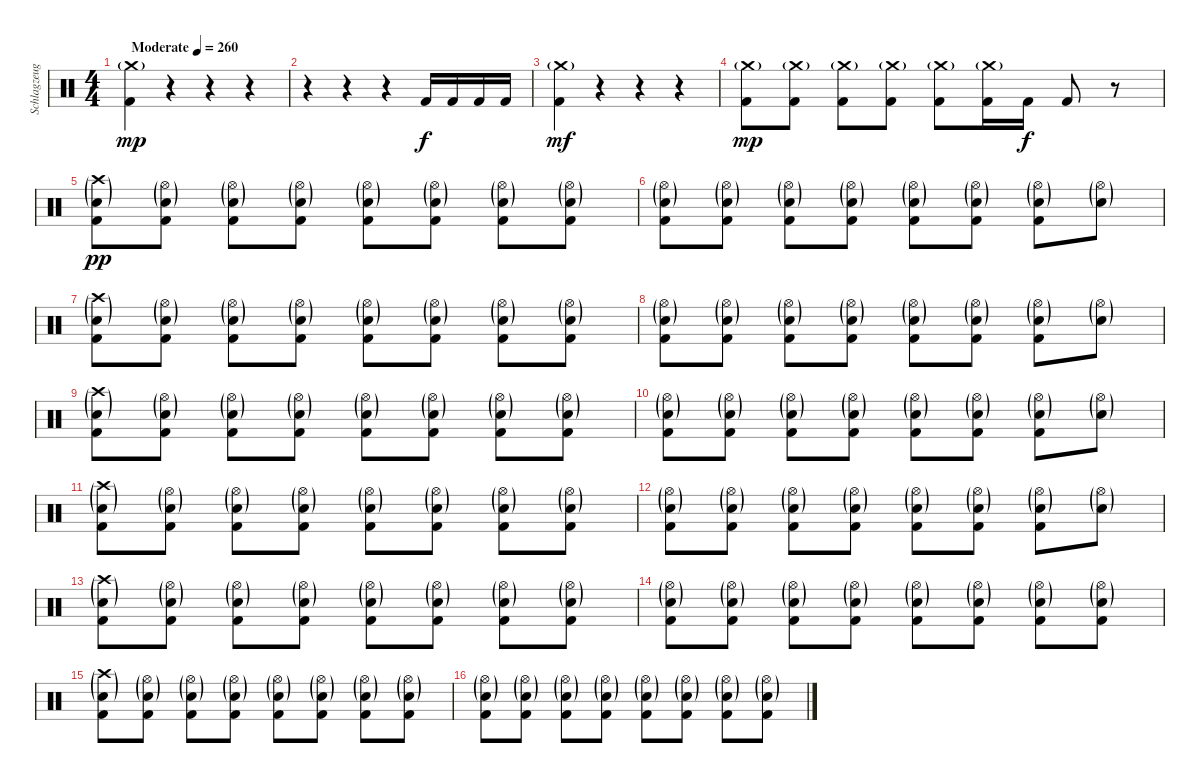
\track ("Schlagzeug" "Schlagzeug") {instrument percussion}
\staff {score}
\articulation defaults
\ts (4 4)
\tempo (260 "Moderate")
\clef neutral
\ks c
("Crash medium (hit)"{g} "Kick (hit) 2").4{dy mp} r.4 r.4 r.4 |
r.4 r.4 r.4 "Kick (hit) 2".16{dy f} "Kick (hit) 2".16 "Kick (hit) 2".16 "Kick (hit) 2".16 |
("Crash medium (hit)"{g} "Kick (hit) 2").4{dy mf} r.4 r.4 r.4 |
("Crash medium (hit)"{g} "Kick (hit) 2").8{dy mp} ("Crash medium (hit)"{g} "Kick (hit) 2").8 ("Crash medium (hit)"{g} "Kick (hit) 2").8 ("Crash medium (hit)"{g} "Kick (hit) 2").8 ("Crash medium (hit)"{g} "Kick (hit) 2").8 ("Crash medium (hit)"{g} "Kick (hit) 2").16 "Kick (hit) 2".16{dy f} "Kick (hit) 2".8 r.8 |
("Crash high (hit)"{g} "Electric Snare (hit)"{g} "Kick (hit) 2").8{dy pp} ("Hi-Hat (open)"{g} "Electric Snare (hit)"{g} "Kick (hit) 2").8 ("Hi-Hat (open)"{g} "Electric Snare (hit)"{g} "Kick (hit) 2").8 ("Hi-Hat (open)"{g} "Electric Snare (hit)"{g} "Kick (hit) 2").8 ("Hi-Hat (open)"{g} "Electric Snare (hit)"{g} "Kick (hit) 2").8 ("Hi-Hat (open)"{g} "Electric Snare (hit)"{g} "Kick (hit) 2").8 ("Hi-Hat (open)"{g} "Electric Snare (hit)"{g} "Kick (hit) 2").8 ("Hi-Hat (open)"{g} "Electric Snare (hit)"{g} "Kick (hit) 2").8 |
("Hi-Hat (open)"{g} "Electric Snare (hit)"{g} "Kick (hit) 2").8 ("Hi-Hat (open)"{g} "Electric Snare (hit)"{g} "Kick (hit) 2").8 ("Hi-Hat (open)"{g} "Electric Snare (hit)"{g} "Kick (hit) 2").8 ("Hi-Hat (open)"{g} "Electric Snare (hit)"{g} "Kick (hit) 2").8 ("Hi-Hat (open)"{g} "Electric Snare (hit)"{g} "Kick (hit) 2").8 ("Hi-Hat (open)"{g} "Electric Snare (hit)"{g} "Kick (hit) 2").8 ("Hi-Hat (open)"{g} "Electric Snare (hit)"{g} "Kick (hit) 2").8 ("Hi-Hat (open)"{g} "Electric Snare (hit)"{g}).8 |
("Crash high (hit)"{g} "Electric Snare (hit)"{g} "Kick (hit) 2").8 ("Hi-Hat (open)"{g} "Electric Snare (hit)"{g} "Kick (hit) 2").8 ("Hi-Hat (open)"{g} "Electric Snare (hit)"{g} "Kick (hit) 2").8 ("Hi-Hat (open)"{g} "Electric Snare (hit)"{g} "Kick (hit) 2").8 ("Hi-Hat (open)"{g} "Electric Snare (hit)"{g} "Kick (hit) 2").8 ("Hi-Hat (open)"{g} "Electric Snare (hit)"{g} "Kick (hit) 2").8 ("Hi-Hat (open)"{g} "Electric Snare (hit)"{g} "Kick (hit) 2").8 ("Hi-Hat (open)"{g} "Electric Snare (hit)"{g} "Kick (hit) 2").8 |
("Hi-Hat (open)"{g} "Electric Snare (hit)"{g} "Kick (hit) 2").8 ("Hi-Hat (open)"{g} "Electric Snare (hit)"{g} "Kick (hit) 2").8 ("Hi-Hat (open)"{g} "Electric Snare (hit)"{g} "Kick (hit) 2").8 ("Hi-Hat (open)"{g} "Electric Snare (hit)"{g} "Kick (hit) 2").8 ("Hi-Hat (open)"{g} "Electric Snare (hit)"{g} "Kick (hit) 2").8 ("Hi-Hat (open)"{g} "Electric Snare (hit)"{g} "Kick (hit) 2").8 ("Hi-Hat (open)"{g} "Electric Snare (hit)"{g} "Kick (hit) 2").8 ("Hi-Hat (open)"{g} "Electric Snare (hit)"{g}).8 |
("Crash high (hit)"{g} "Electric Snare (hit)"{g} "Kick (hit) 2").8 ("Hi-Hat (open)"{g} "Electric Snare (hit)"{g} "Kick (hit) 2").8 ("Hi-Hat (open)"{g} "Electric Snare (hit)"{g} "Kick (hit) 2").8 ("Hi-Hat (open)"{g} "Electric Snare (hit)"{g} "Kick (hit) 2").8 ("Hi-Hat (open)"{g} "Electric Snare (hit)"{g} "Kick (hit) 2").8 ("Hi-Hat (open)"{g} "Electric Snare (hit)"{g} "Kick (hit) 2").8 ("Hi-Hat (open)"{g} "Electric Snare (hit)"{g} "Kick (hit) 2").8 ("Hi-Hat (open)"{g} "Electric Snare (hit)"{g} "Kick (hit) 2").8 |
("Hi-Hat (open)"{g} "Electric Snare (hit)"{g} "Kick (hit) 2").8 ("Hi-Hat (open)"{g} "Electric Snare (hit)"{g} "Kick (hit) 2").8 ("Hi-Hat (open)"{g} "Electric Snare (hit)"{g} "Kick (hit) 2").8 ("Hi-Hat (open)"{g} "Electric Snare (hit)"{g} "Kick (hit) 2").8 ("Hi-Hat (open)"{g} "Electric Snare (hit)"{g} "Kick (hit) 2").8 ("Hi-Hat (open)"{g} "Electric Snare (hit)"{g} "Kick (hit) 2").8 ("Hi-Hat (open)"{g} "Electric Snare (hit)"{g} "Kick (hit) 2").8 ("Hi-Hat (open)"{g} "Electric Snare (hit)"{g}).8 |
("Crash high (hit)"{g} "Electric Snare (hit)"{g} "Kick (hit) 2").8 ("Hi-Hat (open)"{g} "Electric Snare (hit)"{g} "Kick (hit) 2").8 ("Hi-Hat (open)"{g} "Electric Snare (hit)"{g} "Kick (hit) 2").8 ("Hi-Hat (open)"{g} "Electric Snare (hit)"{g} "Kick (hit) 2").8 ("Hi-Hat (open)"{g} "Electric Snare (hit)"{g} "Kick (hit) 2").8 ("Hi-Hat (open)"{g} "Electric Snare (hit)"{g} "Kick (hit) 2").8 ("Hi-Hat (open)"{g} "Electric Snare (hit)"{g} "Kick (hit) 2").8 ("Hi-Hat (open)"{g} "Electric Snare (hit)"{g} "Kick (hit) 2").8 |
("Hi-Hat (open)"{g} "Electric Snare (hit)"{g} "Kick (hit) 2").8 ("Hi-Hat (open)"{g} "Electric Snare (hit)"{g} "Kick (hit) 2").8 ("Hi-Hat (open)"{g} "Electric Snare (hit)"{g} "Kick (hit) 2").8 ("Hi-Hat (open)"{g} "Electric Snare (hit)"{g} "Kick (hit) 2").8 ("Hi-Hat (open)"{g} "Electric Snare (hit)"{g} "Kick (hit) 2").8 ("Hi-Hat (open)"{g} "Electric Snare (hit)"{g} "Kick (hit) 2").8 ("Hi-Hat (open)"{g} "Electric Snare (hit)"{g} "Kick (hit) 2").8 ("Hi-Hat (open)"{g} "Electric Snare (hit)"{g}).8 |
("Crash high (hit)"{g} "Electric Snare (hit)"{g} "Kick (hit) 2").8 ("Hi-Hat (open)"{g} "Electric Snare (hit)"{g} "Kick (hit) 2").8 ("Hi-Hat (open)"{g} "Electric Snare (hit)"{g} "Kick (hit) 2").8 ("Hi-Hat (open)"{g} "Electric Snare (hit)"{g} "Kick (hit) 2").8 ("Hi-Hat (open)"{g} "Electric Snare (hit)"{g} "Kick (hit) 2").8 ("Hi-Hat (open)"{g} "Electric Snare (hit)"{g} "Kick (hit) 2").8 ("Hi-Hat (open)"{g} "Electric Snare (hit)"{g} "Kick (hit) 2").8 ("Hi-Hat (open)"{g} "Electric Snare (hit)"{g} "Kick (hit) 2").8 |
("Hi-Hat (open)"{g} "Electric Snare (hit)"{g} "Kick (hit) 2").8 ("Hi-Hat (open)"{g} "Electric Snare (hit)"{g} "Kick (hit) 2").8 ("Hi-Hat (open)"{g} "Electric Snare (hit)"{g} "Kick (hit) 2").8 ("Hi-Hat (open)"{g} "Electric Snare (hit)"{g} "Kick (hit) 2").8 ("Hi-Hat (open)"{g} "Electric Snare (hit)"{g} "Kick (hit) 2").8 ("Hi-Hat (open)"{g} "Electric Snare (hit)"{g} "Kick (hit) 2").8 ("Hi-Hat (open)"{g} "Electric Snare (hit)"{g} "Kick (hit) 2").8 ("Hi-Hat (open)"{g} "Electric Snare (hit)"{g} "Kick (hit) 2").8 |
("Crash high (hit)"{g} "Electric Snare (hit)"{g} "Kick (hit) 2").8 ("Hi-Hat (open)"{g} "Electric Snare (hit)"{g} "Kick (hit) 2").8 ("Hi-Hat (open)"{g} "Electric Snare (hit)"{g} "Kick (hit) 2").8 ("Hi-Hat (open)"{g} "Electric Snare (hit)"{g} "Kick (hit) 2").8 ("Hi-Hat (open)"{g} "Electric Snare (hit)"{g} "Kick (hit) 2").8 ("Hi-Hat (open)"{g} "Electric Snare (hit)"{g} "Kick (hit) 2").8 ("Hi-Hat (open)"{g} "Electric Snare (hit)"{g} "Kick (hit) 2").8 ("Hi-Hat (open)"{g} "Electric Snare (hit)"{g} "Kick (hit) 2").8 |
("Hi-Hat (open)"{g} "Electric Snare (hit)"{g} "Kick (hit) 2").8 ("Hi-Hat (open)"{g} "Electric Snare (hit)"{g} "Kick (hit) 2").8 ("Hi-Hat (open)"{g} "Electric Snare (hit)"{g} "Kick (hit) 2").8 ("Hi-Hat (open)"{g} "Electric Snare (hit)"{g} "Kick (hit) 2").8 ("Hi-Hat (open)"{g} "Electric Snare (hit)"{g} "Kick (hit) 2").8 ("Hi-Hat (open)"{g} "Electric Snare (hit)"{g} "Kick (hit) 2").8 ("Hi-Hat (open)"{g} "Electric Snare (hit)"{g} "Kick (hit) 2").8 ("Hi-Hat (open)"{g} "Electric Snare (hit)"{g} "Kick (hit) 2").8
